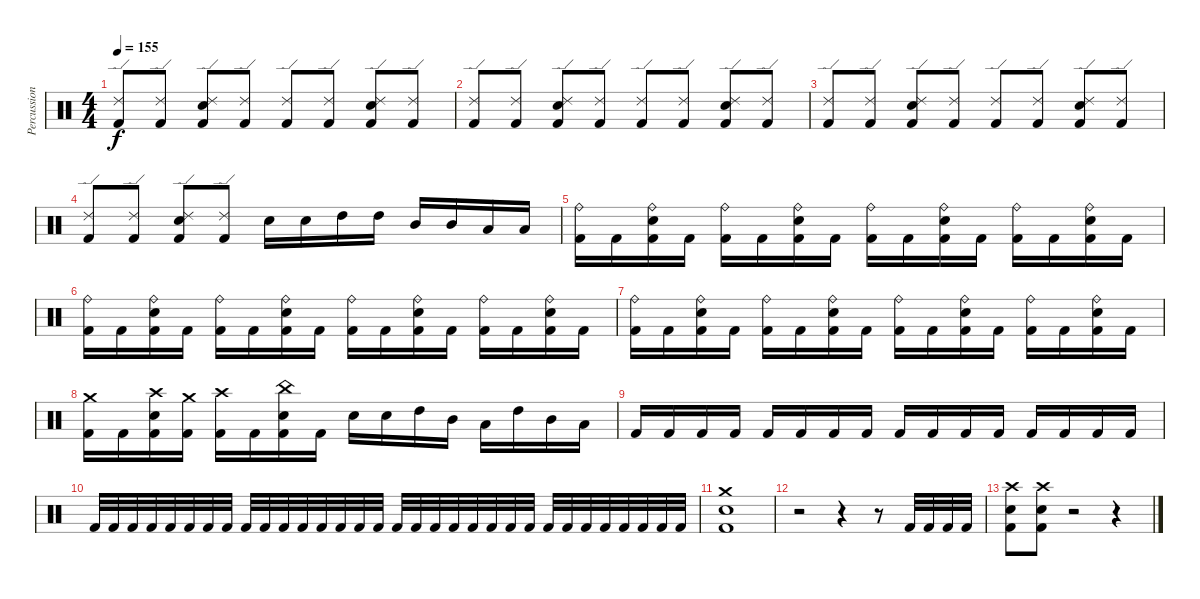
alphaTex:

\track ("Percussions" "Percussion") {instrument percussion}
\staff {score}
\articulation defaults
\ts (4 4)
\tempo 155
\clef neutral
\ks c
("Ride (edge) 2" "Kick (hit) 2").8{dy f} ("Ride (edge) 2" "Kick (hit) 2").8 ("Ride (edge) 2" "Electric Snare (hit)" "Kick (hit) 2").8 ("Ride (edge) 2" "Kick (hit) 2").8 ("Ride (edge) 2" "Kick (hit) 2").8 ("Ride (edge) 2" "Kick (hit) 2").8 ("Ride (edge) 2" "Electric Snare (hit)" "Kick (hit) 2").8 ("Ride (edge) 2" "Kick (hit) 2").8 |
("Ride (edge) 2" "Kick (hit) 2").8 ("Ride (edge) 2" "Kick (hit) 2").8 ("Ride (edge) 2" "Electric Snare (hit)" "Kick (hit) 2").8 ("Ride (edge) 2" "Kick (hit) 2").8 ("Ride (edge) 2" "Kick (hit) 2").8 ("Ride (edge) 2" "Kick (hit) 2").8 ("Ride (edge) 2" "Electric Snare (hit)" "Kick (hit) 2").8 ("Ride (edge) 2" "Kick (hit) 2").8 |
("Ride (edge) 2" "Kick (hit) 2").8 ("Ride (edge) 2" "Kick (hit) 2").8 ("Ride (edge) 2" "Electric Snare (hit)" "Kick (hit) 2").8 ("Ride (edge) 2" "Kick (hit) 2").8 ("Ride (edge) 2" "Kick (hit) 2").8 ("Ride (edge) 2" "Kick (hit) 2").8 ("Ride (edge) 2" "Electric Snare (hit)" "Kick (hit) 2").8 ("Ride (edge) 2" "Kick (hit) 2").8 |
("Ride (edge) 2" "Kick (hit) 2").8 ("Ride (edge) 2" "Kick (hit) 2").8 ("Ride (edge) 2" "Electric Snare (hit)" "Kick (hit) 2").8 ("Ride (edge) 2" "Kick (hit) 2").8 "Electric Snare (hit)".16 "Electric Snare (hit)".16 "High Tom (hit)".16 "High Tom (hit)".16 "Mid Tom (hit)".16 "Mid Tom (hit)".16 "Low Tom (hit)".16 "Low Tom (hit)".16 |
("Ride (bell)" "Kick (hit) 2").16 "Kick (hit) 2".16 ("Ride (bell)" "Electric Snare (hit)" "Kick (hit) 2").16 "Kick (hit) 2".16 ("Ride (bell)" "Kick (hit) 2").16 "Kick (hit) 2".16 ("Ride (bell)" "Electric Snare (hit)" "Kick (hit) 2").16 "Kick (hit) 2".16 ("Ride (bell)" "Kick (hit) 2").16 "Kick (hit) 2".16 ("Ride (bell)" "Electric Snare (hit)" "Kick (hit) 2").16 "Kick (hit) 2".16 ("Ride (bell)" "Kick (hit) 2").16 "Kick (hit) 2".16 ("Ride (bell)" "Electric Snare (hit)" "Kick (hit) 2").16 "Kick (hit) 2".16 |
("Ride (bell)" "Kick (hit) 2").16 "Kick (hit) 2".16 ("Ride (bell)" "Electric Snare (hit)" "Kick (hit) 2").16 "Kick (hit) 2".16 ("Ride (bell)" "Kick (hit) 2").16 "Kick (hit) 2".16 ("Ride (bell)" "Electric Snare (hit)" "Kick (hit) 2").16 "Kick (hit) 2".16 ("Ride (bell)" "Kick (hit) 2").16 "Kick (hit) 2".16 ("Ride (bell)" "Electric Snare (hit)" "Kick (hit) 2").16 "Kick (hit) 2".16 ("Ride (bell)" "Kick (hit) 2").16 "Kick (hit) 2".16 ("Ride (bell)" "Electric Snare (hit)" "Kick (hit) 2").16 "Kick (hit) 2".16 |
("Ride (bell)" "Kick (hit) 2").16 "Kick (hit) 2".16 ("Ride (bell)" "Electric Snare (hit)" "Kick (hit) 2").16 "Kick (hit) 2".16 ("Ride (bell)" "Kick (hit) 2").16 "Kick (hit) 2".16 ("Ride (bell)" "Electric Snare (hit)" "Kick (hit) 2").16 "Kick (hit) 2".16 ("Ride (bell)" "Kick (hit) 2").16 "Kick (hit) 2".16 ("Ride (bell)" "Electric Snare (hit)" "Kick (hit) 2").16 "Kick (hit) 2".16 ("Ride (bell)" "Kick (hit) 2").16 "Kick (hit) 2".16 ("Ride (bell)" "Electric Snare (hit)" "Kick (hit) 2").16 "Kick (hit) 2".16 |
("Crash medium (hit)" "Kick (hit) 2").16 "Kick (hit) 2".16 ("Crash high (hit)" "Electric Snare (hit)" "Kick (hit) 2").16 ("Crash medium (hit)" "Kick (hit) 2").16 ("Crash high (hit)" "Kick (hit) 2").16 "Kick (hit) 2".16 ("China (hit)" "Electric Snare (hit)" "Kick (hit) 2").16 "Kick (hit) 2".16 "Electric Snare (hit)".16 "Electric Snare (hit)".16 "High Tom (hit)".16 "Mid Tom (hit)".16 "Low Tom (hit)".16 "High Tom (hit)".16 "Mid Tom (hit)".16 "Low Tom (hit)".16 |
"Kick (hit) 2".16 "Kick (hit) 2".16 "Kick (hit) 2".16 "Kick (hit) 2".16 "Kick (hit) 2".16 "Kick (hit) 2".16 "Kick (hit) 2".16 "Kick (hit) 2".16 "Kick (hit) 2".16 "Kick (hit) 2".16 "Kick (hit) 2".16 "Kick (hit) 2".16 "Kick (hit) 2".16 "Kick (hit) 2".16 "Kick (hit) 2".16 "Kick (hit) 2".16 |
"Kick (hit) 2".32 "Kick (hit) 2".32 "Kick (hit) 2".32 "Kick (hit) 2".32 "Kick (hit) 2".32 "Kick (hit) 2".32 "Kick (hit) 2".32 "Kick (hit) 2".32 "Kick (hit) 2".32 "Kick (hit) 2".32 "Kick (hit) 2".32 "Kick (hit) 2".32 "Kick (hit) 2".32 "Kick (hit) 2".32 "Kick (hit) 2".32 "Kick (hit) 2".32 "Kick (hit) 2".32 "Kick (hit) 2".32 "Kick (hit) 2".32 "Kick (hit) 2".32 "Kick (hit) 2".32 "Kick (hit) 2".32 "Kick (hit) 2".32 "Kick (hit) 2".32 "Kick (hit) 2".32 "Kick (hit) 2".32 "Kick (hit) 2".32 "Kick (hit) 2".32 "Kick (hit) 2".32 "Kick (hit) 2".32 "Kick (hit) 2".32 "Kick (hit) 2".32 |
("Crash medium (hit)" "Electric Snare (hit)" "Kick (hit) 2").1 |
r.2 r.4 r.8 "Kick (hit) 2".32 "Kick (hit) 2".32 "Kick (hit) 2".32 "Kick (hit) 2".32 |
("Crash high (hit)" "Electric Snare (hit)" "Kick (hit) 2").8 ("Crash high (hit)" "Electric Snare (hit)" "Kick (hit) 2").8 r.2 r.4
